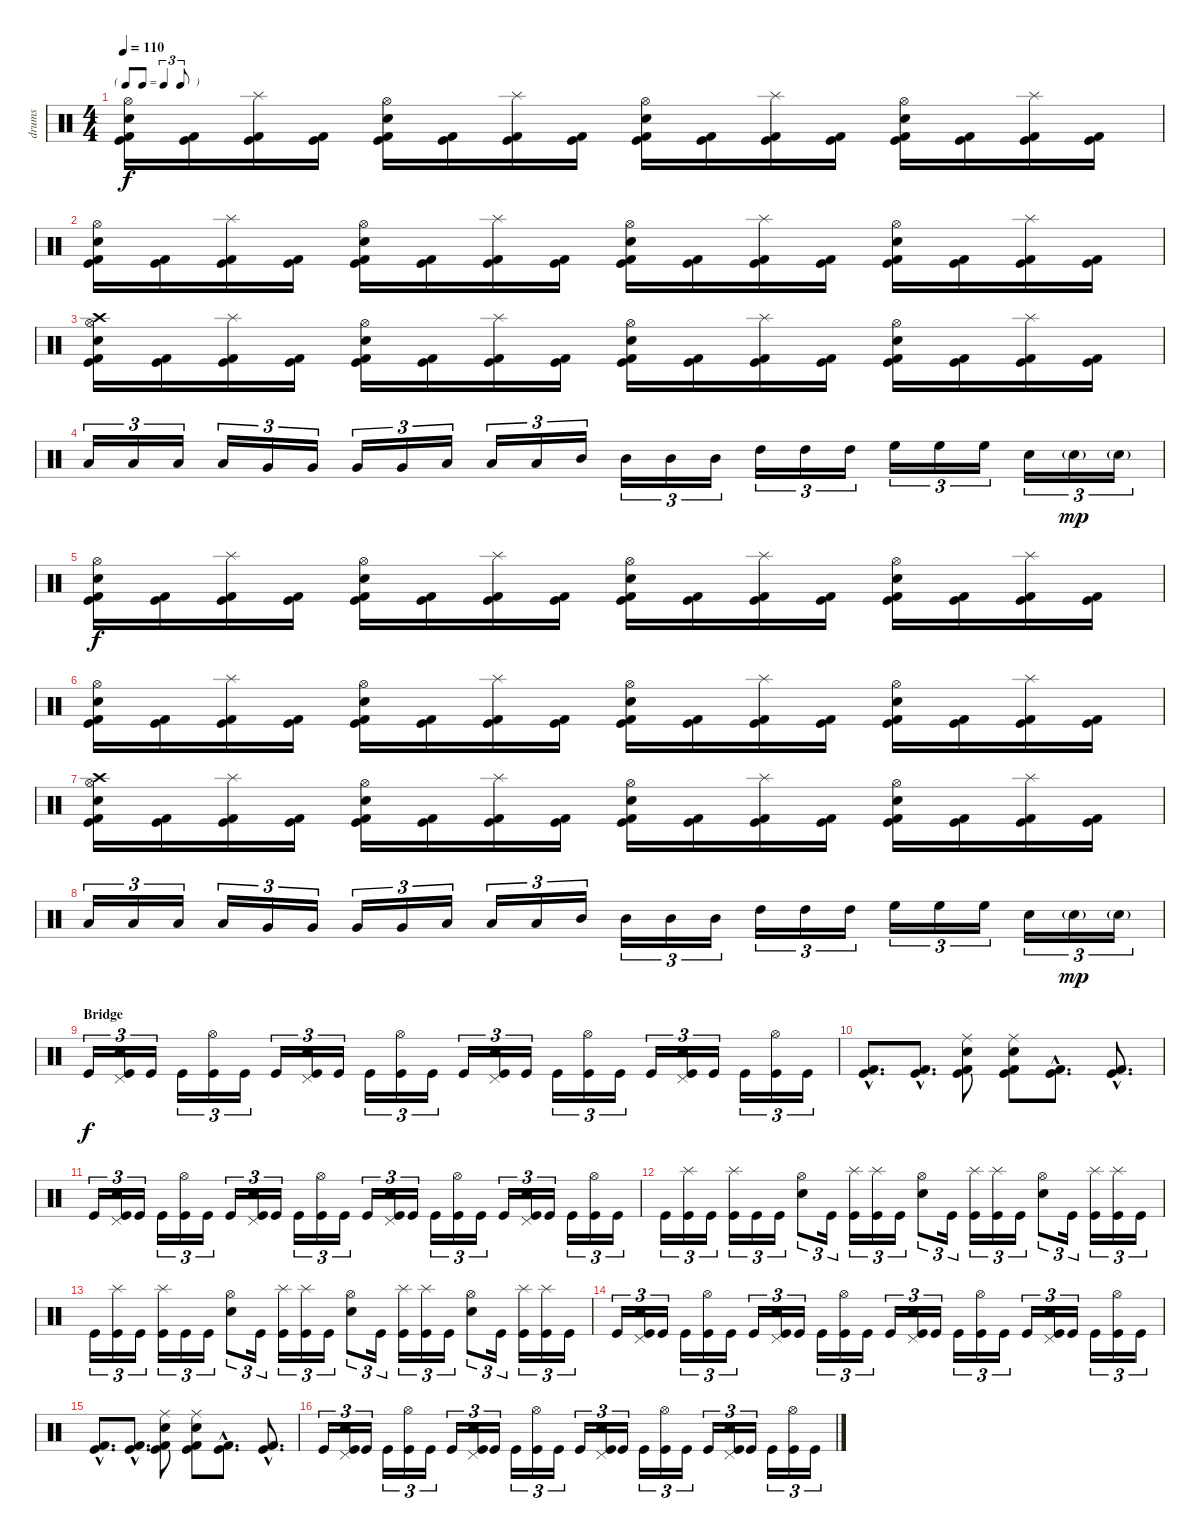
\track ("drums" "drums") {instrument percussion}
\staff {score}
\articulation defaults
\ts (4 4)
\tf triplet8th
\tempo 110
\clef neutral
\ks c
("Hi-Hat (open)" "Snare (hit) 2" "Kick (hit) 2" "Kick (hit)").16{dy f} ("Kick (hit) 2" "Kick (hit)").16 ("Splash (hit)" "Kick (hit) 2" "Kick (hit)").16 ("Kick (hit) 2" "Kick (hit)").16 ("Hi-Hat (open)" "Snare (hit) 2" "Kick (hit) 2" "Kick (hit)").16 ("Kick (hit) 2" "Kick (hit)").16 ("Splash (hit)" "Kick (hit) 2" "Kick (hit)").16 ("Kick (hit) 2" "Kick (hit)").16 ("Hi-Hat (open)" "Snare (hit) 2" "Kick (hit) 2" "Kick (hit)").16 ("Kick (hit) 2" "Kick (hit)").16 ("Splash (hit)" "Kick (hit) 2" "Kick (hit)").16 ("Kick (hit) 2" "Kick (hit)").16 ("Hi-Hat (open)" "Snare (hit) 2" "Kick (hit) 2" "Kick (hit)").16 ("Kick (hit) 2" "Kick (hit)").16 ("Splash (hit)" "Kick (hit) 2" "Kick (hit)").16 ("Kick (hit) 2" "Kick (hit)").16 |
("Hi-Hat (open)" "Snare (hit) 2" "Kick (hit) 2" "Kick (hit)").16 ("Kick (hit) 2" "Kick (hit)").16 ("Splash (hit)" "Kick (hit) 2" "Kick (hit)").16 ("Kick (hit) 2" "Kick (hit)").16 ("Hi-Hat (open)" "Snare (hit) 2" "Kick (hit) 2" "Kick (hit)").16 ("Kick (hit) 2" "Kick (hit)").16 ("Splash (hit)" "Kick (hit) 2" "Kick (hit)").16 ("Kick (hit) 2" "Kick (hit)").16 ("Hi-Hat (open)" "Snare (hit) 2" "Kick (hit) 2" "Kick (hit)").16 ("Kick (hit) 2" "Kick (hit)").16 ("Splash (hit)" "Kick (hit) 2" "Kick (hit)").16 ("Kick (hit) 2" "Kick (hit)").16 ("Hi-Hat (open)" "Snare (hit) 2" "Kick (hit) 2" "Kick (hit)").16 ("Kick (hit) 2" "Kick (hit)").16 ("Splash (hit)" "Kick (hit) 2" "Kick (hit)").16 ("Kick (hit) 2" "Kick (hit)").16 |
("Crash high (hit)" "Hi-Hat (open)" "Snare (hit) 2" "Kick (hit) 2" "Kick (hit)").16 ("Kick (hit) 2" "Kick (hit)").16 ("Splash (hit)" "Kick (hit) 2" "Kick (hit)").16 ("Kick (hit) 2" "Kick (hit)").16 ("Hi-Hat (open)" "Snare (hit) 2" "Kick (hit) 2" "Kick (hit)").16 ("Kick (hit) 2" "Kick (hit)").16 ("Splash (hit)" "Kick (hit) 2" "Kick (hit)").16 ("Kick (hit) 2" "Kick (hit)").16 ("Hi-Hat (open)" "Snare (hit) 2" "Kick (hit) 2" "Kick (hit)").16 ("Kick (hit) 2" "Kick (hit)").16 ("Splash (hit)" "Kick (hit) 2" "Kick (hit)").16 ("Kick (hit) 2" "Kick (hit)").16 ("Hi-Hat (open)" "Snare (hit) 2" "Kick (hit) 2" "Kick (hit)").16 ("Kick (hit) 2" "Kick (hit)").16 ("Splash (hit)" "Kick (hit) 2" "Kick (hit)").16 ("Kick (hit) 2" "Kick (hit)").16 |
"Low Floor Tom (hit)".16{tu (3 2)} "Low Floor Tom (hit)".16{tu (3 2)} "Low Floor Tom (hit)".16{tu (3 2)} "Low Floor Tom (hit)".16{tu (3 2)} "Very Low Tom (hit)".16{tu (3 2)} "Very Low Tom (hit)".16{tu (3 2)} "Very Low Tom (hit)".16{tu (3 2)} "Very Low Tom (hit)".16{tu (3 2)} "Low Tom (hit)".16{tu (3 2)} "Low Tom (hit)".16{tu (3 2)} "Low Tom (hit)".16{tu (3 2)} "Mid Tom (hit)".16{tu (3 2)} "Mid Tom (hit)".16{tu (3 2)} "Mid Tom (hit)".16{tu (3 2)} "Mid Tom (hit)".16{tu (3 2)} "High Tom (hit)".16{tu (3 2)} "High Tom (hit)".16{tu (3 2)} "High Tom (hit)".16{tu (3 2)} "High Floor Tom (hit)".16{tu (3 2)} "High Floor Tom (hit)".16{tu (3 2)} "High Floor Tom (hit)".16{tu (3 2)} "Electric Snare (hit)".16{tu (3 2)} "Snare (hit) 2"{g}.16{tu (3 2) dy mp} "Snare (hit) 2"{g}.16{tu (3 2)} |
("Hi-Hat (open)" "Snare (hit) 2" "Kick (hit) 2" "Kick (hit)").16{dy f} ("Kick (hit) 2" "Kick (hit)").16 ("Splash (hit)" "Kick (hit) 2" "Kick (hit)").16 ("Kick (hit) 2" "Kick (hit)").16 ("Hi-Hat (open)" "Snare (hit) 2" "Kick (hit) 2" "Kick (hit)").16 ("Kick (hit) 2" "Kick (hit)").16 ("Splash (hit)" "Kick (hit) 2" "Kick (hit)").16 ("Kick (hit) 2" "Kick (hit)").16 ("Hi-Hat (open)" "Snare (hit) 2" "Kick (hit) 2" "Kick (hit)").16 ("Kick (hit) 2" "Kick (hit)").16 ("Splash (hit)" "Kick (hit) 2" "Kick (hit)").16 ("Kick (hit) 2" "Kick (hit)").16 ("Hi-Hat (open)" "Snare (hit) 2" "Kick (hit) 2" "Kick (hit)").16 ("Kick (hit) 2" "Kick (hit)").16 ("Splash (hit)" "Kick (hit) 2" "Kick (hit)").16 ("Kick (hit) 2" "Kick (hit)").16 |
("Hi-Hat (open)" "Snare (hit) 2" "Kick (hit) 2" "Kick (hit)").16 ("Kick (hit) 2" "Kick (hit)").16 ("Splash (hit)" "Kick (hit) 2" "Kick (hit)").16 ("Kick (hit) 2" "Kick (hit)").16 ("Hi-Hat (open)" "Snare (hit) 2" "Kick (hit) 2" "Kick (hit)").16 ("Kick (hit) 2" "Kick (hit)").16 ("Splash (hit)" "Kick (hit) 2" "Kick (hit)").16 ("Kick (hit) 2" "Kick (hit)").16 ("Hi-Hat (open)" "Snare (hit) 2" "Kick (hit) 2" "Kick (hit)").16 ("Kick (hit) 2" "Kick (hit)").16 ("Splash (hit)" "Kick (hit) 2" "Kick (hit)").16 ("Kick (hit) 2" "Kick (hit)").16 ("Hi-Hat (open)" "Snare (hit) 2" "Kick (hit) 2" "Kick (hit)").16 ("Kick (hit) 2" "Kick (hit)").16 ("Splash (hit)" "Kick (hit) 2" "Kick (hit)").16 ("Kick (hit) 2" "Kick (hit)").16 |
("Crash high (hit)" "Hi-Hat (open)" "Snare (hit) 2" "Kick (hit) 2" "Kick (hit)").16 ("Kick (hit) 2" "Kick (hit)").16 ("Splash (hit)" "Kick (hit) 2" "Kick (hit)").16 ("Kick (hit) 2" "Kick (hit)").16 ("Hi-Hat (open)" "Snare (hit) 2" "Kick (hit) 2" "Kick (hit)").16 ("Kick (hit) 2" "Kick (hit)").16 ("Splash (hit)" "Kick (hit) 2" "Kick (hit)").16 ("Kick (hit) 2" "Kick (hit)").16 ("Hi-Hat (open)" "Snare (hit) 2" "Kick (hit) 2" "Kick (hit)").16 ("Kick (hit) 2" "Kick (hit)").16 ("Splash (hit)" "Kick (hit) 2" "Kick (hit)").16 ("Kick (hit) 2" "Kick (hit)").16 ("Hi-Hat (open)" "Snare (hit) 2" "Kick (hit) 2" "Kick (hit)").16 ("Kick (hit) 2" "Kick (hit)").16 ("Splash (hit)" "Kick (hit) 2" "Kick (hit)").16 ("Kick (hit) 2" "Kick (hit)").16 |
"Low Floor Tom (hit)".16{tu (3 2)} "Low Floor Tom (hit)".16{tu (3 2)} "Low Floor Tom (hit)".16{tu (3 2)} "Low Floor Tom (hit)".16{tu (3 2)} "Very Low Tom (hit)".16{tu (3 2)} "Very Low Tom (hit)".16{tu (3 2)} "Very Low Tom (hit)".16{tu (3 2)} "Very Low Tom (hit)".16{tu (3 2)} "Low Tom (hit)".16{tu (3 2)} "Low Tom (hit)".16{tu (3 2)} "Low Tom (hit)".16{tu (3 2)} "Mid Tom (hit)".16{tu (3 2)} "Mid Tom (hit)".16{tu (3 2)} "Mid Tom (hit)".16{tu (3 2)} "Mid Tom (hit)".16{tu (3 2)} "High Tom (hit)".16{tu (3 2)} "High Tom (hit)".16{tu (3 2)} "High Tom (hit)".16{tu (3 2)} "High Floor Tom (hit)".16{tu (3 2)} "High Floor Tom (hit)".16{tu (3 2)} "High Floor Tom (hit)".16{tu (3 2)} "Electric Snare (hit)".16{tu (3 2)} "Snare (hit) 2"{g}.16{tu (3 2) dy mp} "Snare (hit) 2"{g}.16{tu (3 2)} |
\section ("" "Bridge")
"Kick (hit)".16{tu (3 2) dy f} ("Pedal Hi-Hat (hit)" "Electric Snare (hit)" "Kick (hit)").16{tu (3 2)} "Kick (hit)".16{tu (3 2)} "Kick (hit)".16{tu (3 2)} ("Hi-Hat (open)" "Kick (hit)").16{tu (3 2)} "Kick (hit)".16{tu (3 2)} "Kick (hit)".16{tu (3 2)} ("Pedal Hi-Hat (hit)" "Electric Snare (hit)" "Kick (hit)").16{tu (3 2)} "Kick (hit)".16{tu (3 2)} "Kick (hit)".16{tu (3 2)} ("Hi-Hat (open)" "Kick (hit)").16{tu (3 2)} "Kick (hit)".16{tu (3 2)} "Kick (hit)".16{tu (3 2)} ("Pedal Hi-Hat (hit)" "Electric Snare (hit)" "Kick (hit)").16{tu (3 2)} "Kick (hit)".16{tu (3 2)} "Kick (hit)".16{tu (3 2)} ("Hi-Hat (open)" "Kick (hit)").16{tu (3 2)} "Kick (hit)".16{tu (3 2)} "Kick (hit)".16{tu (3 2)} ("Pedal Hi-Hat (hit)" "Electric Snare (hit)" "Kick (hit)").16{tu (3 2)} "Kick (hit)".16{tu (3 2)} "Kick (hit)".16{tu (3 2)} ("Hi-Hat (open)" "Kick (hit)").16{tu (3 2)} "Kick (hit)".16{tu (3 2)} |
("Kick (hit) 2"{hac} "Kick (hit)"{hac}).8{d} ("Kick (hit) 2"{hac} "Kick (hit)"{hac}).8{d} ("Ride (middle)" "Electric Snare (hit)" "Kick (hit)" "Kick (hit) 2").8 ("Ride (middle)" "Electric Snare (hit)" "Kick (hit)" "Kick (hit) 2").8 ("Kick (hit) 2"{hac} "Kick (hit)"{hac}).8{d} ("Kick (hit) 2"{hac} "Kick (hit)"{hac}).8{d} |
"Kick (hit)".16{tu (3 2)} ("Pedal Hi-Hat (hit)" "Electric Snare (hit)" "Kick (hit)").16{tu (3 2)} "Kick (hit)".16{tu (3 2)} "Kick (hit)".16{tu (3 2)} ("Hi-Hat (open)" "Kick (hit)").16{tu (3 2)} "Kick (hit)".16{tu (3 2)} "Kick (hit)".16{tu (3 2)} ("Pedal Hi-Hat (hit)" "Electric Snare (hit)" "Kick (hit)").16{tu (3 2)} "Kick (hit)".16{tu (3 2)} "Kick (hit)".16{tu (3 2)} ("Hi-Hat (open)" "Kick (hit)").16{tu (3 2)} "Kick (hit)".16{tu (3 2)} "Kick (hit)".16{tu (3 2)} ("Pedal Hi-Hat (hit)" "Electric Snare (hit)" "Kick (hit)").16{tu (3 2)} "Kick (hit)".16{tu (3 2)} "Kick (hit)".16{tu (3 2)} ("Hi-Hat (open)" "Kick (hit)").16{tu (3 2)} "Kick (hit)".16{tu (3 2)} "Kick (hit)".16{tu (3 2)} ("Pedal Hi-Hat (hit)" "Electric Snare (hit)" "Kick (hit)").16{tu (3 2)} "Kick (hit)".16{tu (3 2)} "Kick (hit)".16{tu (3 2)} ("Hi-Hat (open)" "Kick (hit)").16{tu (3 2)} "Kick (hit)".16{tu (3 2)} |
"Kick (hit)".16{tu (3 2)} ("Splash (hit)" "Kick (hit)").16{tu (3 2)} "Kick (hit)".16{tu (3 2)} ("Splash (hit)" "Kick (hit)").16{tu (3 2)} "Kick (hit)".16{tu (3 2)} "Kick (hit)".16{tu (3 2)} ("Hi-Hat (open)" "Electric Snare (hit)").8{tu (3 2)} "Kick (hit)".16{tu (3 2)} ("Splash (hit)" "Kick (hit)").16{tu (3 2)} ("Splash (hit)" "Kick (hit)").16{tu (3 2)} "Kick (hit)".16{tu (3 2)} ("Hi-Hat (open)" "Electric Snare (hit)").8{tu (3 2)} "Kick (hit)".16{tu (3 2)} ("Splash (hit)" "Kick (hit)").16{tu (3 2)} ("Splash (hit)" "Kick (hit)").16{tu (3 2)} "Kick (hit)".16{tu (3 2)} ("Hi-Hat (open)" "Electric Snare (hit)").8{tu (3 2)} "Kick (hit)".16{tu (3 2)} ("Splash (hit)" "Kick (hit)").16{tu (3 2)} ("Splash (hit)" "Kick (hit)").16{tu (3 2)} "Kick (hit)".16{tu (3 2)} |
"Kick (hit)".16{tu (3 2)} ("Splash (hit)" "Kick (hit)").16{tu (3 2)} "Kick (hit)".16{tu (3 2)} ("Splash (hit)" "Kick (hit)").16{tu (3 2)} "Kick (hit)".16{tu (3 2)} "Kick (hit)".16{tu (3 2)} ("Hi-Hat (open)" "Electric Snare (hit)").8{tu (3 2)} "Kick (hit)".16{tu (3 2)} ("Splash (hit)" "Kick (hit)").16{tu (3 2)} ("Splash (hit)" "Kick (hit)").16{tu (3 2)} "Kick (hit)".16{tu (3 2)} ("Hi-Hat (open)" "Electric Snare (hit)").8{tu (3 2)} "Kick (hit)".16{tu (3 2)} ("Splash (hit)" "Kick (hit)").16{tu (3 2)} ("Splash (hit)" "Kick (hit)").16{tu (3 2)} "Kick (hit)".16{tu (3 2)} ("Hi-Hat (open)" "Electric Snare (hit)").8{tu (3 2)} "Kick (hit)".16{tu (3 2)} ("Splash (hit)" "Kick (hit)").16{tu (3 2)} ("Splash (hit)" "Kick (hit)").16{tu (3 2)} "Kick (hit)".16{tu (3 2)} |
"Kick (hit)".16{tu (3 2)} ("Pedal Hi-Hat (hit)" "Electric Snare (hit)" "Kick (hit)").16{tu (3 2)} "Kick (hit)".16{tu (3 2)} "Kick (hit)".16{tu (3 2)} ("Hi-Hat (open)" "Kick (hit)").16{tu (3 2)} "Kick (hit)".16{tu (3 2)} "Kick (hit)".16{tu (3 2)} ("Pedal Hi-Hat (hit)" "Electric Snare (hit)" "Kick (hit)").16{tu (3 2)} "Kick (hit)".16{tu (3 2)} "Kick (hit)".16{tu (3 2)} ("Hi-Hat (open)" "Kick (hit)").16{tu (3 2)} "Kick (hit)".16{tu (3 2)} "Kick (hit)".16{tu (3 2)} ("Pedal Hi-Hat (hit)" "Electric Snare (hit)" "Kick (hit)").16{tu (3 2)} "Kick (hit)".16{tu (3 2)} "Kick (hit)".16{tu (3 2)} ("Hi-Hat (open)" "Kick (hit)").16{tu (3 2)} "Kick (hit)".16{tu (3 2)} "Kick (hit)".16{tu (3 2)} ("Pedal Hi-Hat (hit)" "Electric Snare (hit)" "Kick (hit)").16{tu (3 2)} "Kick (hit)".16{tu (3 2)} "Kick (hit)".16{tu (3 2)} ("Hi-Hat (open)" "Kick (hit)").16{tu (3 2)} "Kick (hit)".16{tu (3 2)} |
("Kick (hit) 2"{hac} "Kick (hit)"{hac}).8{d} ("Kick (hit) 2"{hac} "Kick (hit)"{hac}).8{d} ("Ride (middle)" "Electric Snare (hit)" "Kick (hit)" "Kick (hit) 2").8 ("Ride (middle)" "Electric Snare (hit)" "Kick (hit)" "Kick (hit) 2").8 ("Kick (hit) 2"{hac} "Kick (hit)"{hac}).8{d} ("Kick (hit) 2"{hac} "Kick (hit)"{hac}).8{d} |
"Kick (hit)".16{tu (3 2)} ("Pedal Hi-Hat (hit)" "Electric Snare (hit)" "Kick (hit)").16{tu (3 2)} "Kick (hit)".16{tu (3 2)} "Kick (hit)".16{tu (3 2)} ("Hi-Hat (open)" "Kick (hit)").16{tu (3 2)} "Kick (hit)".16{tu (3 2)} "Kick (hit)".16{tu (3 2)} ("Pedal Hi-Hat (hit)" "Electric Snare (hit)" "Kick (hit)").16{tu (3 2)} "Kick (hit)".16{tu (3 2)} "Kick (hit)".16{tu (3 2)} ("Hi-Hat (open)" "Kick (hit)").16{tu (3 2)} "Kick (hit)".16{tu (3 2)} "Kick (hit)".16{tu (3 2)} ("Pedal Hi-Hat (hit)" "Electric Snare (hit)" "Kick (hit)").16{tu (3 2)} "Kick (hit)".16{tu (3 2)} "Kick (hit)".16{tu (3 2)} ("Hi-Hat (open)" "Kick (hit)").16{tu (3 2)} "Kick (hit)".16{tu (3 2)} "Kick (hit)".16{tu (3 2)} ("Pedal Hi-Hat (hit)" "Electric Snare (hit)" "Kick (hit)").16{tu (3 2)} "Kick (hit)".16{tu (3 2)} "Kick (hit)".16{tu (3 2)} ("Hi-Hat (open)" "Kick (hit)").16{tu (3 2)} "Kick (hit)".16{tu (3 2)}
